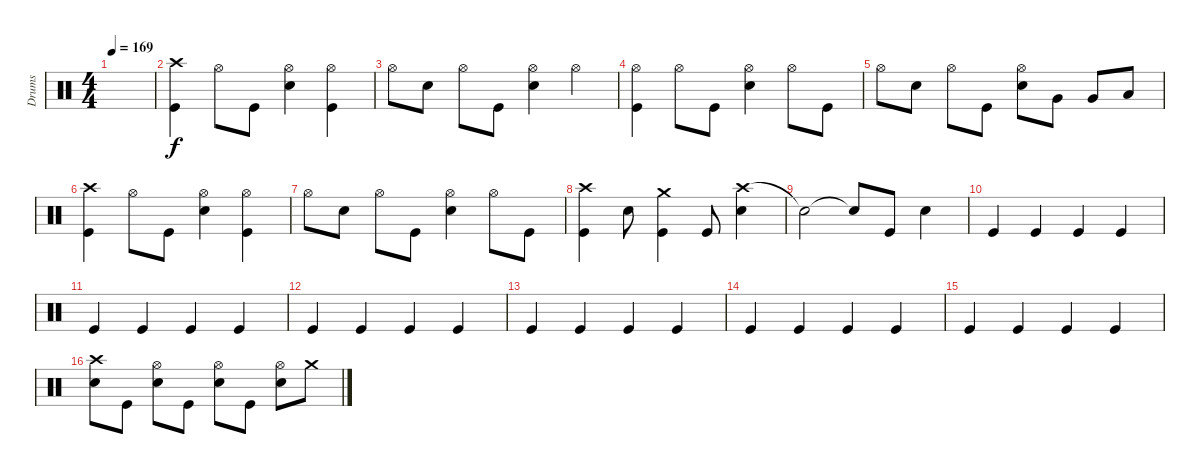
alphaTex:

\track ("Drums" "Drums") {instrument percussion}
\staff {score}
\articulation defaults
\ts (4 4)
\tempo 169
\clef neutral
\ks c
|
("Crash high (hit)" "Kick (hit)").4 "Hi-Hat (open)".8 "Kick (hit)".8 ("Hi-Hat (open)" "Snare (hit) 2").4 ("Hi-Hat (open)" "Kick (hit)").4 |
"Hi-Hat (open)".8 "Snare (hit) 2".8 "Hi-Hat (open)".8 "Kick (hit)".8 ("Hi-Hat (open)" "Snare (hit) 2").4 "Hi-Hat (open)".4 |
("Hi-Hat (open)" "Kick (hit)").4 "Hi-Hat (open)".8 "Kick (hit)".8 ("Hi-Hat (open)" "Snare (hit) 2").4 "Hi-Hat (open)".8 "Kick (hit)".8 |
"Hi-Hat (open)".8 "Snare (hit) 2".8 "Hi-Hat (open)".8 "Kick (hit)".8 ("Hi-Hat (open)" "Snare (hit) 2").8 "Very Low Tom (hit)".8 "Very Low Tom (hit)".8 "Low Floor Tom (hit)".8 |
("Crash high (hit)" "Kick (hit)").4 "Hi-Hat (open)".8 "Kick (hit)".8 ("Hi-Hat (open)" "Snare (hit) 2").4 ("Hi-Hat (open)" "Kick (hit)").4 |
"Hi-Hat (open)".8 "Snare (hit) 2".8 "Hi-Hat (open)".8 "Kick (hit)".8 ("Hi-Hat (open)" "Snare (hit) 2").4 "Hi-Hat (open)".8 "Kick (hit)".8 |
("Crash high (hit)" "Kick (hit)").4 "Snare (hit) 2".8 ("Crash medium (hit)" "Kick (hit)").4 "Kick (hit)".8 ("Crash high (hit)" "Snare (hit) 2").4 |
"Snare (hit)"{t}.2 "Snare (hit)"{t}.8 "Kick (hit)".8 "Snare (hit) 2".4 |
"Kick (hit)".4 "Kick (hit)".4 "Kick (hit)".4 "Kick (hit)".4 |
"Kick (hit)".4 "Kick (hit)".4 "Kick (hit)".4 "Kick (hit)".4 |
"Kick (hit)".4 "Kick (hit)".4 "Kick (hit)".4 "Kick (hit)".4 |
"Kick (hit)".4 "Kick (hit)".4 "Kick (hit)".4 "Kick (hit)".4 |
"Kick (hit)".4 "Kick (hit)".4 "Kick (hit)".4 "Kick (hit)".4 |
"Kick (hit)".4 "Kick (hit)".4 "Kick (hit)".4 "Kick (hit)".4 |
("Crash high (hit)" "Snare (hit) 2").8 "Kick (hit)".8 ("Hi-Hat (open)" "Snare (hit) 2").8 "Kick (hit)".8 ("Hi-Hat (open)" "Snare (hit) 2").8 "Kick (hit)".8 ("Hi-Hat (open)" "Snare (hit) 2").8 "Crash medium (hit)".8
